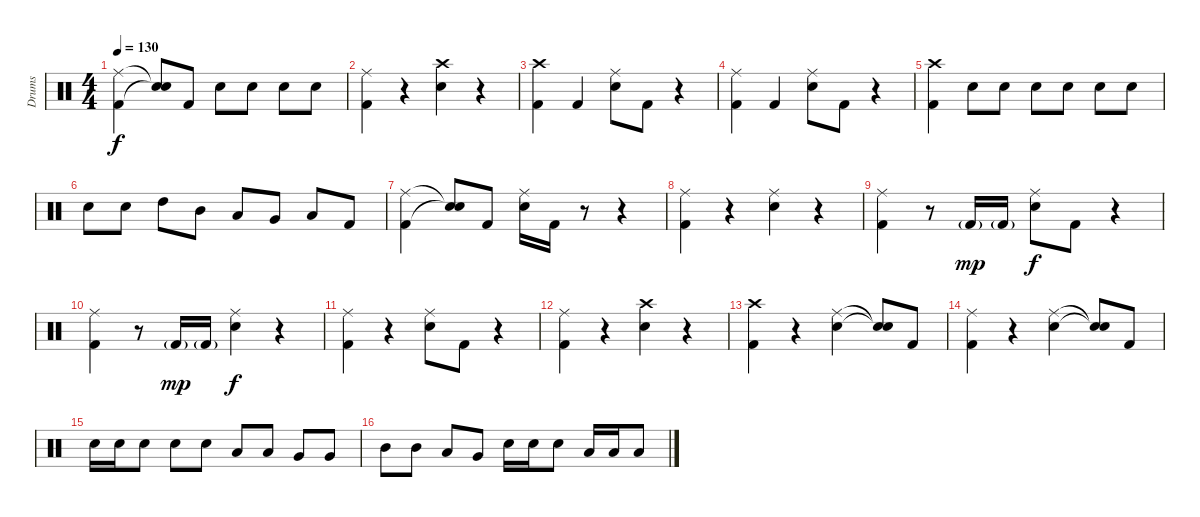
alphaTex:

\track ("Drums" "Drums") {instrument percussion}
\staff {score}
\articulation defaults
\ts (4 4)
\tempo 130
\clef neutral
\ks c
("Ride (middle)" "Kick (hit) 2").4{dy f} ("Snare (hit)"{t} "Snare (hit)"{t}).8 "Kick (hit) 2".8 "Electric Snare (hit)".8 "Electric Snare (hit)".8 "Electric Snare (hit)".8 "Electric Snare (hit)".8 |
("Ride (middle)" "Kick (hit) 2").4 r.4 ("Crash high (hit)" "Electric Snare (hit)").4 r.4 |
("Crash high (hit)" "Kick (hit) 2").4 "Kick (hit) 2".4 ("Ride (middle)" "Electric Snare (hit)").8 "Kick (hit) 2".8 r.4 |
("Ride (middle)" "Kick (hit) 2").4 "Kick (hit) 2".4 ("Ride (middle)" "Electric Snare (hit)").8 "Kick (hit) 2".8 r.4 |
("Crash high (hit)" "Kick (hit) 2").4 "Electric Snare (hit)".8 "Electric Snare (hit)".8 "Electric Snare (hit)".8 "Electric Snare (hit)".8 "Electric Snare (hit)".8 "Electric Snare (hit)".8 |
"Electric Snare (hit)".8 "Electric Snare (hit)".8 "High Tom (hit)".8 "Mid Tom (hit)".8 "Low Tom (hit)".8 "Very Low Tom (hit)".8 "Low Floor Tom (hit)".8 "Kick (hit) 2".8 |
("Ride (middle)" "Kick (hit) 2").4 ("Snare (hit)"{t} "Snare (hit)"{t}).8 "Kick (hit) 2".8 ("Ride (middle)" "Electric Snare (hit)").16 "Kick (hit) 2".16 r.8 r.4 |
("Ride (middle)" "Kick (hit) 2").4 r.4 ("Ride (middle)" "Electric Snare (hit)").4 r.4 |
("Ride (middle)" "Kick (hit) 2").4 r.8 "Kick (hit) 2"{g}.16{dy mp} "Kick (hit) 2"{g}.16 ("Ride (middle)" "Electric Snare (hit)").8{dy f} "Kick (hit) 2".8 r.4 |
("Ride (middle)" "Kick (hit) 2").4 r.8 "Kick (hit) 2"{g}.16{dy mp} "Kick (hit) 2"{g}.16 ("Ride (middle)" "Electric Snare (hit)").4{dy f} r.4 |
("Ride (middle)" "Kick (hit) 2").4 r.4 ("Ride (middle)" "Electric Snare (hit)").8 "Kick (hit) 2".8 r.4 |
("Ride (middle)" "Kick (hit) 2").4 r.4 ("Crash high (hit)" "Electric Snare (hit)").4 r.4 |
("Crash high (hit)" "Kick (hit) 2").4 r.4 ("Ride (middle)" "Electric Snare (hit)").4 ("Snare (hit)"{t} "Snare (hit)"{t}).8 "Kick (hit) 2".8 |
("Ride (middle)" "Kick (hit) 2").4 r.4 ("Ride (middle)" "Electric Snare (hit)").4 ("Snare (hit)"{t} "Snare (hit)"{t}).8 "Kick (hit) 2".8 |
"Electric Snare (hit)".16 "Electric Snare (hit)".16 "Electric Snare (hit)".8 "Electric Snare (hit)".8 "Electric Snare (hit)".8 "Low Tom (hit)".8 "Low Tom (hit)".8 "Very Low Tom (hit)".8 "Very Low Tom (hit)".8 |
"Mid Tom (hit)".8 "Mid Tom (hit)".8 "Low Tom (hit)".8 "Very Low Tom (hit)".8 "Electric Snare (hit)".16 "Electric Snare (hit)".16 "Electric Snare (hit)".8 "Low Tom (hit)".16 "Low Tom (hit)".16 "Low Tom (hit)".8
